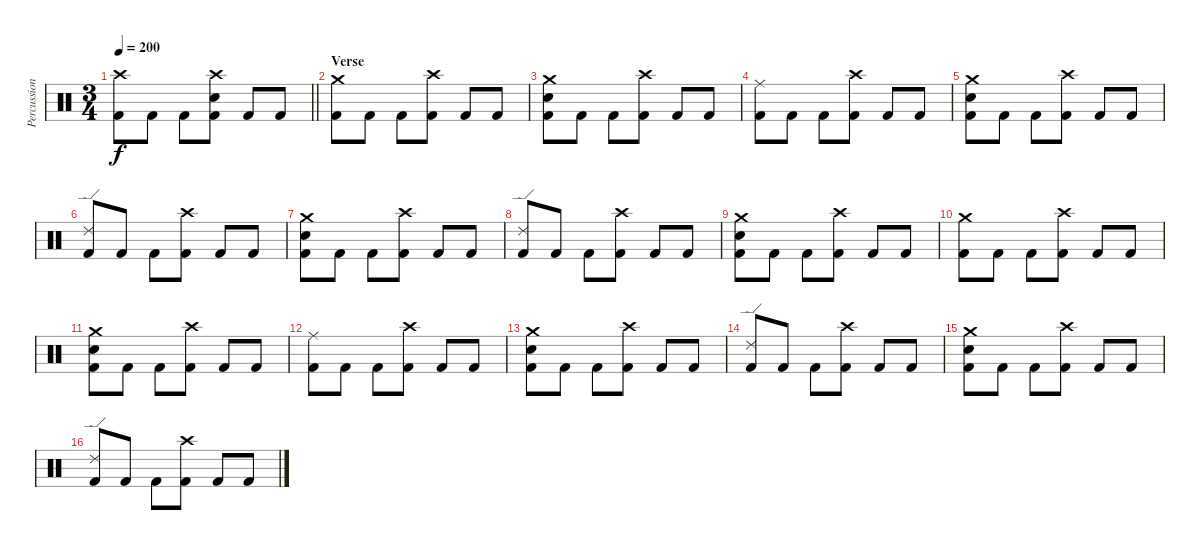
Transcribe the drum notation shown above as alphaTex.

\track ("Percussion" "Percussion") {instrument percussion}
\staff {score}
\articulation defaults
\ts (3 4)
\tempo 200
\clef neutral
\barLineRight lightlight
\ks c
("Crash high (hit)" "Kick (hit) 2").8{dy f} "Kick (hit) 2".8 "Kick (hit) 2".8 ("Crash high (hit)" "Electric Snare (hit)" "Kick (hit) 2").8 "Kick (hit) 2".8 "Kick (hit) 2".8 |
\section ("" "Verse")
("Crash medium (hit)" "Kick (hit) 2").8 "Kick (hit) 2".8 "Kick (hit) 2".8 ("Crash high (hit)" "Kick (hit) 2").8 "Kick (hit) 2".8 "Kick (hit) 2".8 |
("Crash medium (hit)" "Electric Snare (hit)" "Kick (hit) 2").8 "Kick (hit) 2".8 "Kick (hit) 2".8 ("Crash high (hit)" "Kick (hit) 2").8 "Kick (hit) 2".8 "Kick (hit) 2".8 |
("Ride (middle)" "Kick (hit) 2").8 "Kick (hit) 2".8 "Kick (hit) 2".8 ("Crash high (hit)" "Kick (hit) 2").8 "Kick (hit) 2".8 "Kick (hit) 2".8 |
("Crash medium (hit)" "Electric Snare (hit)" "Kick (hit) 2").8 "Kick (hit) 2".8 "Kick (hit) 2".8 ("Crash high (hit)" "Kick (hit) 2").8 "Kick (hit) 2".8 "Kick (hit) 2".8 |
("Ride (edge) 2" "Kick (hit) 2").8 "Kick (hit) 2".8 "Kick (hit) 2".8 ("Crash high (hit)" "Kick (hit) 2").8 "Kick (hit) 2".8 "Kick (hit) 2".8 |
("Crash medium (hit)" "Electric Snare (hit)" "Kick (hit) 2").8 "Kick (hit) 2".8 "Kick (hit) 2".8 ("Crash high (hit)" "Kick (hit) 2").8 "Kick (hit) 2".8 "Kick (hit) 2".8 |
("Ride (edge) 2" "Kick (hit) 2").8 "Kick (hit) 2".8 "Kick (hit) 2".8 ("Crash high (hit)" "Kick (hit) 2").8 "Kick (hit) 2".8 "Kick (hit) 2".8 |
("Crash medium (hit)" "Electric Snare (hit)" "Kick (hit) 2").8 "Kick (hit) 2".8 "Kick (hit) 2".8 ("Crash high (hit)" "Kick (hit) 2").8 "Kick (hit) 2".8 "Kick (hit) 2".8 |
("Crash medium (hit)" "Kick (hit) 2").8 "Kick (hit) 2".8 "Kick (hit) 2".8 ("Crash high (hit)" "Kick (hit) 2").8 "Kick (hit) 2".8 "Kick (hit) 2".8 |
("Crash medium (hit)" "Electric Snare (hit)" "Kick (hit) 2").8 "Kick (hit) 2".8 "Kick (hit) 2".8 ("Crash high (hit)" "Kick (hit) 2").8 "Kick (hit) 2".8 "Kick (hit) 2".8 |
("Ride (middle)" "Kick (hit) 2").8 "Kick (hit) 2".8 "Kick (hit) 2".8 ("Crash high (hit)" "Kick (hit) 2").8 "Kick (hit) 2".8 "Kick (hit) 2".8 |
("Crash medium (hit)" "Electric Snare (hit)" "Kick (hit) 2").8 "Kick (hit) 2".8 "Kick (hit) 2".8 ("Crash high (hit)" "Kick (hit) 2").8 "Kick (hit) 2".8 "Kick (hit) 2".8 |
("Ride (edge) 2" "Kick (hit) 2").8 "Kick (hit) 2".8 "Kick (hit) 2".8 ("Crash high (hit)" "Kick (hit) 2").8 "Kick (hit) 2".8 "Kick (hit) 2".8 |
("Crash medium (hit)" "Electric Snare (hit)" "Kick (hit) 2").8 "Kick (hit) 2".8 "Kick (hit) 2".8 ("Crash high (hit)" "Kick (hit) 2").8 "Kick (hit) 2".8 "Kick (hit) 2".8 |
("Ride (edge) 2" "Kick (hit) 2").8 "Kick (hit) 2".8 "Kick (hit) 2".8 ("Crash high (hit)" "Kick (hit) 2").8 "Kick (hit) 2".8 "Kick (hit) 2".8
